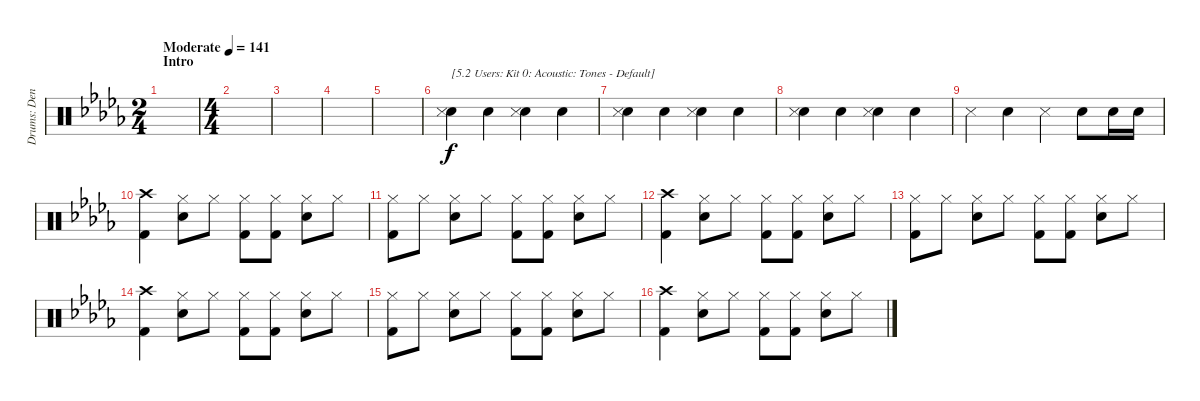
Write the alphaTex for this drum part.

\track ("Drums: Denny" "Drums: Den") {instrument percussion}
\staff {score}
\articulation defaults
\ts (2 4)
\section ("" "Intro")
\tempo (141 "Moderate")
\clef neutral
\ks db
|
\ts (4 4)
|
|
|
|
("Snare (hit) 2" "Snare (side stick) 3").4{txt "[5.2 Users: Kit 0: Acoustic: Tones - Default]"} "Snare (hit) 2".4 ("Snare (hit) 2" "Snare (side stick) 3").4 "Snare (hit) 2".4 |
("Snare (hit) 2" "Snare (side stick) 3").4 "Snare (hit) 2".4 ("Snare (hit) 2" "Snare (side stick) 3").4 "Snare (hit) 2".4 |
("Snare (hit) 2" "Snare (side stick) 3").4 "Snare (hit) 2".4 ("Snare (hit) 2" "Snare (side stick) 3").4 "Snare (hit) 2".4 |
"Snare (side stick) 3".4 "Snare (hit) 2".4 "Snare (side stick) 3".4 "Snare (hit) 2".8 "Snare (hit) 2".16 "Snare (hit) 2".16 |
("Crash high (hit)" "Kick (hit) 2").4 ("Hi-Hat (closed)" "Snare (hit) 2").8 "Hi-Hat (closed)".8 ("Hi-Hat (closed)" "Kick (hit) 2").8 ("Hi-Hat (closed)" "Kick (hit) 2").8 ("Hi-Hat (closed)" "Snare (hit) 2").8 "Hi-Hat (closed)".8 |
("Hi-Hat (closed)" "Kick (hit) 2").8 "Hi-Hat (closed)".8 ("Hi-Hat (closed)" "Snare (hit) 2").8 "Hi-Hat (closed)".8 ("Hi-Hat (closed)" "Kick (hit) 2").8 ("Hi-Hat (closed)" "Kick (hit) 2").8 ("Hi-Hat (closed)" "Snare (hit) 2").8 "Hi-Hat (closed)".8 |
("Crash high (hit)" "Kick (hit) 2").4 ("Hi-Hat (closed)" "Snare (hit) 2").8 "Hi-Hat (closed)".8 ("Hi-Hat (closed)" "Kick (hit) 2").8 ("Hi-Hat (closed)" "Kick (hit) 2").8 ("Hi-Hat (closed)" "Snare (hit) 2").8 "Hi-Hat (closed)".8 |
("Hi-Hat (closed)" "Kick (hit) 2").8 "Hi-Hat (closed)".8 ("Hi-Hat (closed)" "Snare (hit) 2").8 "Hi-Hat (closed)".8 ("Hi-Hat (closed)" "Kick (hit) 2").8 ("Hi-Hat (closed)" "Kick (hit) 2").8 ("Hi-Hat (closed)" "Snare (hit) 2").8 "Hi-Hat (closed)".8 |
("Crash high (hit)" "Kick (hit) 2").4 ("Hi-Hat (closed)" "Snare (hit) 2").8 "Hi-Hat (closed)".8 ("Hi-Hat (closed)" "Kick (hit) 2").8 ("Hi-Hat (closed)" "Kick (hit) 2").8 ("Hi-Hat (closed)" "Snare (hit) 2").8 "Hi-Hat (closed)".8 |
("Hi-Hat (closed)" "Kick (hit) 2").8 "Hi-Hat (closed)".8 ("Hi-Hat (closed)" "Snare (hit) 2").8 "Hi-Hat (closed)".8 ("Hi-Hat (closed)" "Kick (hit) 2").8 ("Hi-Hat (closed)" "Kick (hit) 2").8 ("Hi-Hat (closed)" "Snare (hit) 2").8 "Hi-Hat (closed)".8 |
("Crash high (hit)" "Kick (hit) 2").4 ("Hi-Hat (closed)" "Snare (hit) 2").8 "Hi-Hat (closed)".8 ("Hi-Hat (closed)" "Kick (hit) 2").8 ("Hi-Hat (closed)" "Kick (hit) 2").8 ("Hi-Hat (closed)" "Snare (hit) 2").8 "Hi-Hat (closed)".8
